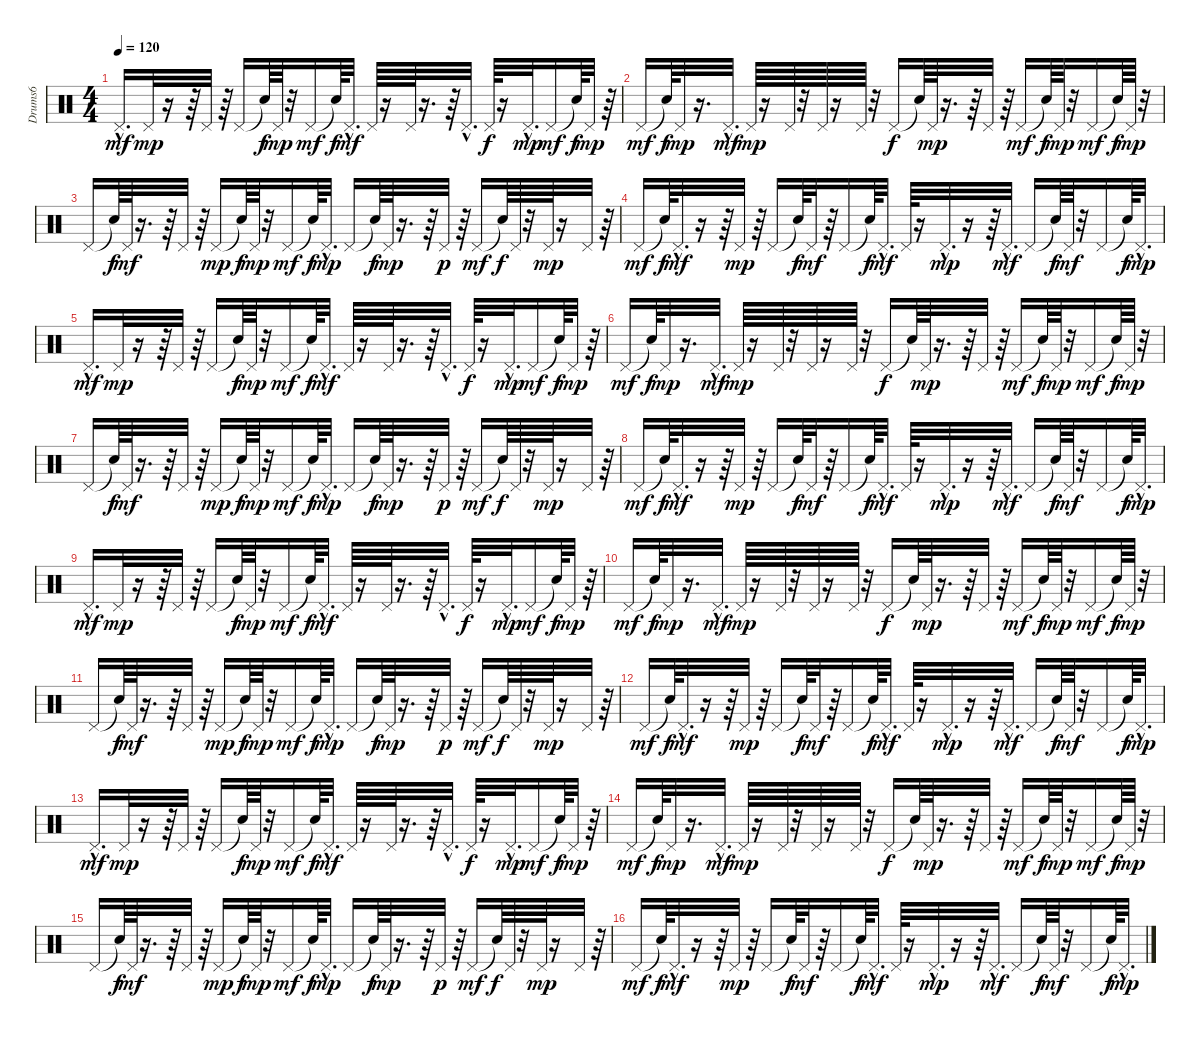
\track ("Drums6" "Drums6") {instrument percussion}
\staff {score}
\articulation defaults
\ts (4 4)
\tempo 120
\clef neutral
\ks c "Pedal Hi-Hat (hit)"{hac}.16{d dy mf} "Pedal Hi-Hat (hit)".32{dy mp}
r.16 r.64 "Pedal Hi-Hat (hit)".32 r.64 "Pedal Hi-Hat (hit)".16 "Snare (hit)"{t}.64{dy f} "Pedal Hi-Hat (hit)".64{dy mp} r.32 "Pedal Hi-Hat (hit)".16{dy mf} "Snare (hit)"{t}.64{dy f} "Pedal Hi-Hat (hit)"{hac}.32{d dy mf} "Pedal Hi-Hat (hit)".64 r.16 "Pedal Hi-Hat (hit)".64 r.16{d} r.64 "Pedal Hi-Hat (hit)"{hac}.32{d} "Pedal Hi-Hat (hit)".64{dy f} r.16 "Pedal Hi-Hat (hit)"{hac}.32{d dy mp} "Pedal Hi-Hat (hit)".16{dy mf} "Snare (hit)"{t}.64{dy f} "Pedal Hi-Hat (hit)".32{dy mp} r.64 |
"Pedal Hi-Hat (hit)".16{dy mf} "Snare (hit)"{t}.64{dy f} "Pedal Hi-Hat (hit)".32{dy mp} r.16{d} "Pedal Hi-Hat (hit)"{hac}.32{d dy mf} "Pedal Hi-Hat (hit)".64{dy mp} r.16 "Pedal Hi-Hat (hit)".64 r.32 "Pedal Hi-Hat (hit)".64 r.16 "Pedal Hi-Hat (hit)".64 r.32 "Pedal Hi-Hat (hit)".16{dy f} "Snare (hit)"{t}.64 "Pedal Hi-Hat (hit)".64{dy mp} r.16{d} r.64 "Pedal Hi-Hat (hit)".32 r.64 "Pedal Hi-Hat (hit)".16{dy mf} "Snare (hit)"{t}.64{dy f} "Pedal Hi-Hat (hit)".64{dy mp} r.32 "Pedal Hi-Hat (hit)".16{dy mf} "Snare (hit)"{t}.64{dy f} "Pedal Hi-Hat (hit)".64{dy mp} r.32 |
"Pedal Hi-Hat (hit)".16 "Snare (hit)"{t}.64{dy f} "Pedal Hi-Hat (hit)".64{dy mf} r.16{d} r.64 "Pedal Hi-Hat (hit)".32 r.64 "Pedal Hi-Hat (hit)".16{dy mp} "Snare (hit)"{t}.64{dy f} "Pedal Hi-Hat (hit)".64{dy mp} r.32 "Pedal Hi-Hat (hit)".16{dy mf} "Snare (hit)"{t}.64{dy f} "Pedal Hi-Hat (hit)"{hac}.32{d dy mp} "Pedal Hi-Hat (hit)".16 "Snare (hit)"{t}.64{dy f} "Pedal Hi-Hat (hit)".64{dy mp} r.16{d} r.64 "Pedal Hi-Hat (hit)".32{dy p} r.64 "Pedal Hi-Hat (hit)".16{dy mf} "Snare (hit)"{t}.64{dy f} "Pedal Hi-Hat (hit)".64 r.32 "Pedal Hi-Hat (hit)".64{dy mp} r.16 "Pedal Hi-Hat (hit)".32 r.64 |
"Pedal Hi-Hat (hit)".16{dy mf} "Snare (hit)"{t}.64{dy f} "Pedal Hi-Hat (hit)"{hac}.32{d dy mf} r.16 r.64 "Pedal Hi-Hat (hit)".32{dy mp} r.64 "Pedal Hi-Hat (hit)".16 "Snare (hit)"{t}.64{dy f} "Pedal Hi-Hat (hit)".32{dy mf} r.64 "Pedal Hi-Hat (hit)".16 "Snare (hit)"{t}.64{dy f} "Pedal Hi-Hat (hit)"{hac}.32{d dy mf} "Pedal Hi-Hat (hit)".64 r.16 "Pedal Hi-Hat (hit)"{hac}.32{d dy mp} r.16 r.64 "Pedal Hi-Hat (hit)"{hac}.32{d dy mf} "Pedal Hi-Hat (hit)".16 "Snare (hit)"{t}.64{dy f} "Pedal Hi-Hat (hit)".64{dy mf} r.32 "Pedal Hi-Hat (hit)".16 "Snare (hit)"{t}.64{dy f} "Pedal Hi-Hat (hit)"{hac}.32{d dy mp} |
"Pedal Hi-Hat (hit)"{hac}.16{d dy mf} "Pedal Hi-Hat (hit)".32{dy mp} r.16 r.64 "Pedal Hi-Hat (hit)".32 r.64 "Pedal Hi-Hat (hit)".16 "Snare (hit)"{t}.64{dy f} "Pedal Hi-Hat (hit)".64{dy mp} r.32 "Pedal Hi-Hat (hit)".16{dy mf} "Snare (hit)"{t}.64{dy f} "Pedal Hi-Hat (hit)"{hac}.32{d dy mf} "Pedal Hi-Hat (hit)".64 r.16 "Pedal Hi-Hat (hit)".64 r.16{d} r.64 "Pedal Hi-Hat (hit)"{hac}.32{d} "Pedal Hi-Hat (hit)".64{dy f} r.16 "Pedal Hi-Hat (hit)"{hac}.32{d dy mp} "Pedal Hi-Hat (hit)".16{dy mf} "Snare (hit)"{t}.64{dy f} "Pedal Hi-Hat (hit)".32{dy mp} r.64 |
"Pedal Hi-Hat (hit)".16{dy mf} "Snare (hit)"{t}.64{dy f} "Pedal Hi-Hat (hit)".32{dy mp} r.16{d} "Pedal Hi-Hat (hit)"{hac}.32{d dy mf} "Pedal Hi-Hat (hit)".64{dy mp} r.16 "Pedal Hi-Hat (hit)".64 r.32 "Pedal Hi-Hat (hit)".64 r.16 "Pedal Hi-Hat (hit)".64 r.32 "Pedal Hi-Hat (hit)".16{dy f} "Snare (hit)"{t}.64 "Pedal Hi-Hat (hit)".64{dy mp} r.16{d} r.64 "Pedal Hi-Hat (hit)".32 r.64 "Pedal Hi-Hat (hit)".16{dy mf} "Snare (hit)"{t}.64{dy f} "Pedal Hi-Hat (hit)".64{dy mp} r.32 "Pedal Hi-Hat (hit)".16{dy mf} "Snare (hit)"{t}.64{dy f} "Pedal Hi-Hat (hit)".64{dy mp} r.32 |
"Pedal Hi-Hat (hit)".16 "Snare (hit)"{t}.64{dy f} "Pedal Hi-Hat (hit)".64{dy mf} r.16{d} r.64 "Pedal Hi-Hat (hit)".32 r.64 "Pedal Hi-Hat (hit)".16{dy mp} "Snare (hit)"{t}.64{dy f} "Pedal Hi-Hat (hit)".64{dy mp} r.32 "Pedal Hi-Hat (hit)".16{dy mf} "Snare (hit)"{t}.64{dy f} "Pedal Hi-Hat (hit)"{hac}.32{d dy mp} "Pedal Hi-Hat (hit)".16 "Snare (hit)"{t}.64{dy f} "Pedal Hi-Hat (hit)".64{dy mp} r.16{d} r.64 "Pedal Hi-Hat (hit)".32{dy p} r.64 "Pedal Hi-Hat (hit)".16{dy mf} "Snare (hit)"{t}.64{dy f} "Pedal Hi-Hat (hit)".64 r.32 "Pedal Hi-Hat (hit)".64{dy mp} r.16 "Pedal Hi-Hat (hit)".32 r.64 |
"Pedal Hi-Hat (hit)".16{dy mf} "Snare (hit)"{t}.64{dy f} "Pedal Hi-Hat (hit)"{hac}.32{d dy mf} r.16 r.64 "Pedal Hi-Hat (hit)".32{dy mp} r.64 "Pedal Hi-Hat (hit)".16 "Snare (hit)"{t}.64{dy f} "Pedal Hi-Hat (hit)".32{dy mf} r.64 "Pedal Hi-Hat (hit)".16 "Snare (hit)"{t}.64{dy f} "Pedal Hi-Hat (hit)"{hac}.32{d dy mf} "Pedal Hi-Hat (hit)".64 r.16 "Pedal Hi-Hat (hit)"{hac}.32{d dy mp} r.16 r.64 "Pedal Hi-Hat (hit)"{hac}.32{d dy mf} "Pedal Hi-Hat (hit)".16 "Snare (hit)"{t}.64{dy f} "Pedal Hi-Hat (hit)".64{dy mf} r.32 "Pedal Hi-Hat (hit)".16 "Snare (hit)"{t}.64{dy f} "Pedal Hi-Hat (hit)"{hac}.32{d dy mp} |
"Pedal Hi-Hat (hit)"{hac}.16{d dy mf} "Pedal Hi-Hat (hit)".32{dy mp} r.16 r.64 "Pedal Hi-Hat (hit)".32 r.64 "Pedal Hi-Hat (hit)".16 "Snare (hit)"{t}.64{dy f} "Pedal Hi-Hat (hit)".64{dy mp} r.32 "Pedal Hi-Hat (hit)".16{dy mf} "Snare (hit)"{t}.64{dy f} "Pedal Hi-Hat (hit)"{hac}.32{d dy mf} "Pedal Hi-Hat (hit)".64 r.16 "Pedal Hi-Hat (hit)".64 r.16{d} r.64 "Pedal Hi-Hat (hit)"{hac}.32{d} "Pedal Hi-Hat (hit)".64{dy f} r.16 "Pedal Hi-Hat (hit)"{hac}.32{d dy mp} "Pedal Hi-Hat (hit)".16{dy mf} "Snare (hit)"{t}.64{dy f} "Pedal Hi-Hat (hit)".32{dy mp} r.64 |
"Pedal Hi-Hat (hit)".16{dy mf} "Snare (hit)"{t}.64{dy f} "Pedal Hi-Hat (hit)".32{dy mp} r.16{d} "Pedal Hi-Hat (hit)"{hac}.32{d dy mf} "Pedal Hi-Hat (hit)".64{dy mp} r.16 "Pedal Hi-Hat (hit)".64 r.32 "Pedal Hi-Hat (hit)".64 r.16 "Pedal Hi-Hat (hit)".64 r.32 "Pedal Hi-Hat (hit)".16{dy f} "Snare (hit)"{t}.64 "Pedal Hi-Hat (hit)".64{dy mp} r.16{d} r.64 "Pedal Hi-Hat (hit)".32 r.64 "Pedal Hi-Hat (hit)".16{dy mf} "Snare (hit)"{t}.64{dy f} "Pedal Hi-Hat (hit)".64{dy mp} r.32 "Pedal Hi-Hat (hit)".16{dy mf} "Snare (hit)"{t}.64{dy f} "Pedal Hi-Hat (hit)".64{dy mp} r.32 |
"Pedal Hi-Hat (hit)".16 "Snare (hit)"{t}.64{dy f} "Pedal Hi-Hat (hit)".64{dy mf} r.16{d} r.64 "Pedal Hi-Hat (hit)".32 r.64 "Pedal Hi-Hat (hit)".16{dy mp} "Snare (hit)"{t}.64{dy f} "Pedal Hi-Hat (hit)".64{dy mp} r.32 "Pedal Hi-Hat (hit)".16{dy mf} "Snare (hit)"{t}.64{dy f} "Pedal Hi-Hat (hit)"{hac}.32{d dy mp} "Pedal Hi-Hat (hit)".16 "Snare (hit)"{t}.64{dy f} "Pedal Hi-Hat (hit)".64{dy mp} r.16{d} r.64 "Pedal Hi-Hat (hit)".32{dy p} r.64 "Pedal Hi-Hat (hit)".16{dy mf} "Snare (hit)"{t}.64{dy f} "Pedal Hi-Hat (hit)".64 r.32 "Pedal Hi-Hat (hit)".64{dy mp} r.16 "Pedal Hi-Hat (hit)".32 r.64 |
"Pedal Hi-Hat (hit)".16{dy mf} "Snare (hit)"{t}.64{dy f} "Pedal Hi-Hat (hit)"{hac}.32{d dy mf} r.16 r.64 "Pedal Hi-Hat (hit)".32{dy mp} r.64 "Pedal Hi-Hat (hit)".16 "Snare (hit)"{t}.64{dy f} "Pedal Hi-Hat (hit)".32{dy mf} r.64 "Pedal Hi-Hat (hit)".16 "Snare (hit)"{t}.64{dy f} "Pedal Hi-Hat (hit)"{hac}.32{d dy mf} "Pedal Hi-Hat (hit)".64 r.16 "Pedal Hi-Hat (hit)"{hac}.32{d dy mp} r.16 r.64 "Pedal Hi-Hat (hit)"{hac}.32{d dy mf} "Pedal Hi-Hat (hit)".16 "Snare (hit)"{t}.64{dy f} "Pedal Hi-Hat (hit)".64{dy mf} r.32 "Pedal Hi-Hat (hit)".16 "Snare (hit)"{t}.64{dy f} "Pedal Hi-Hat (hit)"{hac}.32{d dy mp} |
"Pedal Hi-Hat (hit)"{hac}.16{d dy mf} "Pedal Hi-Hat (hit)".32{dy mp} r.16 r.64 "Pedal Hi-Hat (hit)".32 r.64 "Pedal Hi-Hat (hit)".16 "Snare (hit)"{t}.64{dy f} "Pedal Hi-Hat (hit)".64{dy mp} r.32 "Pedal Hi-Hat (hit)".16{dy mf} "Snare (hit)"{t}.64{dy f} "Pedal Hi-Hat (hit)"{hac}.32{d dy mf} "Pedal Hi-Hat (hit)".64 r.16 "Pedal Hi-Hat (hit)".64 r.16{d} r.64 "Pedal Hi-Hat (hit)"{hac}.32{d} "Pedal Hi-Hat (hit)".64{dy f} r.16 "Pedal Hi-Hat (hit)"{hac}.32{d dy mp} "Pedal Hi-Hat (hit)".16{dy mf} "Snare (hit)"{t}.64{dy f} "Pedal Hi-Hat (hit)".32{dy mp} r.64 |
"Pedal Hi-Hat (hit)".16{dy mf} "Snare (hit)"{t}.64{dy f} "Pedal Hi-Hat (hit)".32{dy mp} r.16{d} "Pedal Hi-Hat (hit)"{hac}.32{d dy mf} "Pedal Hi-Hat (hit)".64{dy mp} r.16 "Pedal Hi-Hat (hit)".64 r.32 "Pedal Hi-Hat (hit)".64 r.16 "Pedal Hi-Hat (hit)".64 r.32 "Pedal Hi-Hat (hit)".16{dy f} "Snare (hit)"{t}.64 "Pedal Hi-Hat (hit)".64{dy mp} r.16{d} r.64 "Pedal Hi-Hat (hit)".32 r.64 "Pedal Hi-Hat (hit)".16{dy mf} "Snare (hit)"{t}.64{dy f} "Pedal Hi-Hat (hit)".64{dy mp} r.32 "Pedal Hi-Hat (hit)".16{dy mf} "Snare (hit)"{t}.64{dy f} "Pedal Hi-Hat (hit)".64{dy mp} r.32 |
"Pedal Hi-Hat (hit)".16 "Snare (hit)"{t}.64{dy f} "Pedal Hi-Hat (hit)".64{dy mf} r.16{d} r.64 "Pedal Hi-Hat (hit)".32 r.64 "Pedal Hi-Hat (hit)".16{dy mp} "Snare (hit)"{t}.64{dy f} "Pedal Hi-Hat (hit)".64{dy mp} r.32 "Pedal Hi-Hat (hit)".16{dy mf} "Snare (hit)"{t}.64{dy f} "Pedal Hi-Hat (hit)"{hac}.32{d dy mp} "Pedal Hi-Hat (hit)".16 "Snare (hit)"{t}.64{dy f} "Pedal Hi-Hat (hit)".64{dy mp} r.16{d} r.64 "Pedal Hi-Hat (hit)".32{dy p} r.64 "Pedal Hi-Hat (hit)".16{dy mf} "Snare (hit)"{t}.64{dy f} "Pedal Hi-Hat (hit)".64 r.32 "Pedal Hi-Hat (hit)".64{dy mp} r.16 "Pedal Hi-Hat (hit)".32 r.64 |
"Pedal Hi-Hat (hit)".16{dy mf} "Snare (hit)"{t}.64{dy f} "Pedal Hi-Hat (hit)"{hac}.32{d dy mf} r.16 r.64 "Pedal Hi-Hat (hit)".32{dy mp} r.64 "Pedal Hi-Hat (hit)".16 "Snare (hit)"{t}.64{dy f} "Pedal Hi-Hat (hit)".32{dy mf} r.64 "Pedal Hi-Hat (hit)".16 "Snare (hit)"{t}.64{dy f} "Pedal Hi-Hat (hit)"{hac}.32{d dy mf} "Pedal Hi-Hat (hit)".64 r.16 "Pedal Hi-Hat (hit)"{hac}.32{d dy mp} r.16 r.64 "Pedal Hi-Hat (hit)"{hac}.32{d dy mf} "Pedal Hi-Hat (hit)".16 "Snare (hit)"{t}.64{dy f} "Pedal Hi-Hat (hit)".64{dy mf} r.32 "Pedal Hi-Hat (hit)".16 "Snare (hit)"{t}.64{dy f} "Pedal Hi-Hat (hit)"{hac}.32{d dy mp}
